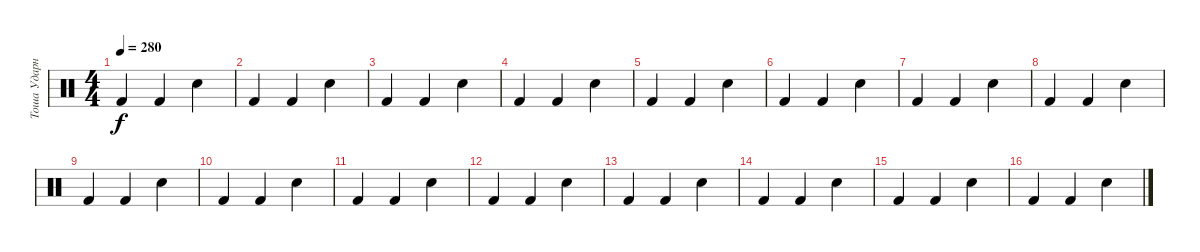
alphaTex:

\track ("Тоша Ударные" "Тоша Ударн") {instrument percussion}
\staff {score}
\articulation defaults
\ts (4 4)
\tempo 280
\clef neutral
\ks c "Kick (hit) 2".4{dy f} "Kick (hit) 2".4 "Electric Snare (hit)".4
|
"Kick (hit) 2".4 "Kick (hit) 2".4 "Electric Snare (hit)".4 |
"Kick (hit) 2".4 "Kick (hit) 2".4 "Electric Snare (hit)".4 |
"Kick (hit) 2".4 "Kick (hit) 2".4 "Electric Snare (hit)".4 |
"Kick (hit) 2".4 "Kick (hit) 2".4 "Electric Snare (hit)".4 |
"Kick (hit) 2".4 "Kick (hit) 2".4 "Electric Snare (hit)".4 |
"Kick (hit) 2".4 "Kick (hit) 2".4 "Electric Snare (hit)".4 |
"Kick (hit) 2".4 "Kick (hit) 2".4 "Electric Snare (hit)".4 |
"Kick (hit) 2".4 "Kick (hit) 2".4 "Electric Snare (hit)".4 |
"Kick (hit) 2".4 "Kick (hit) 2".4 "Electric Snare (hit)".4 |
"Kick (hit) 2".4 "Kick (hit) 2".4 "Electric Snare (hit)".4 |
"Kick (hit) 2".4 "Kick (hit) 2".4 "Electric Snare (hit)".4 |
"Kick (hit) 2".4 "Kick (hit) 2".4 "Electric Snare (hit)".4 |
"Kick (hit) 2".4 "Kick (hit) 2".4 "Electric Snare (hit)".4 |
"Kick (hit) 2".4 "Kick (hit) 2".4 "Electric Snare (hit)".4 |
"Kick (hit) 2".4 "Kick (hit) 2".4 "Electric Snare (hit)".4
